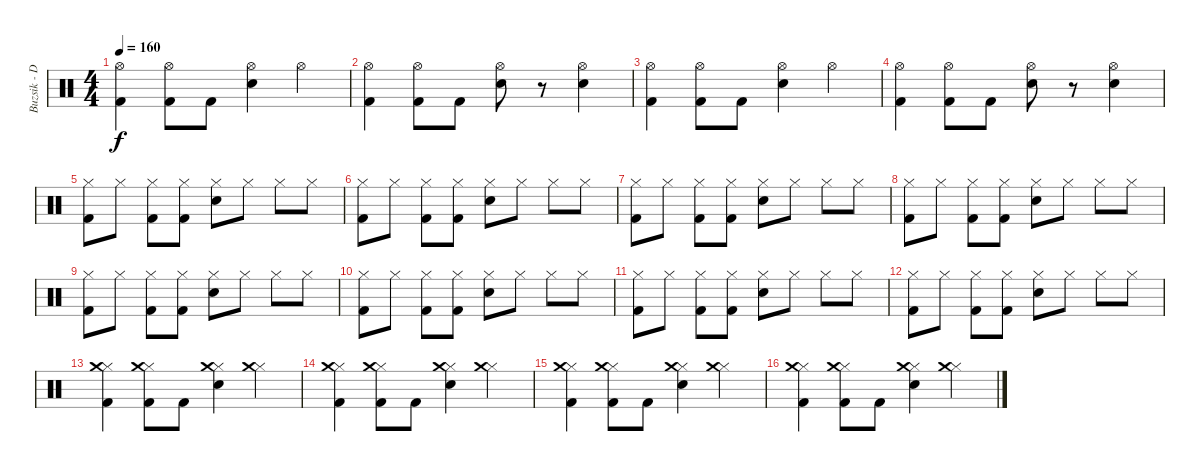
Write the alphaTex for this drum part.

\track ("Buzsik - Dob" "Buzsik - D") {instrument percussion}
\staff {score}
\articulation defaults
\ts (4 4)
\tempo 160
\clef neutral
\ks c
("Hi-Hat (open)" "Kick (hit) 2").4{dy f} ("Hi-Hat (open)" "Kick (hit) 2").8 "Kick (hit) 2".8 ("Hi-Hat (open)" "Electric Snare (hit)").4 "Hi-Hat (open)".4 |
("Hi-Hat (open)" "Kick (hit) 2").4 ("Hi-Hat (open)" "Kick (hit) 2").8 "Kick (hit) 2".8 ("Hi-Hat (open)" "Electric Snare (hit)").8 r.8 ("Hi-Hat (open)" "Electric Snare (hit)").4 |
("Hi-Hat (open)" "Kick (hit) 2").4 ("Hi-Hat (open)" "Kick (hit) 2").8 "Kick (hit) 2".8 ("Hi-Hat (open)" "Electric Snare (hit)").4 "Hi-Hat (open)".4 |
("Hi-Hat (open)" "Kick (hit) 2").4 ("Hi-Hat (open)" "Kick (hit) 2").8 "Kick (hit) 2".8 ("Hi-Hat (open)" "Electric Snare (hit)").8 r.8 ("Hi-Hat (open)" "Electric Snare (hit)").4 |
("Hi-Hat (closed)" "Kick (hit) 2").8 "Hi-Hat (closed)".8 ("Hi-Hat (closed)" "Kick (hit) 2").8 ("Hi-Hat (closed)" "Kick (hit) 2").8 ("Hi-Hat (closed)" "Electric Snare (hit)").8 "Hi-Hat (closed)".8 "Hi-Hat (closed)".8 "Hi-Hat (closed)".8 |
("Hi-Hat (closed)" "Kick (hit) 2").8 "Hi-Hat (closed)".8 ("Hi-Hat (closed)" "Kick (hit) 2").8 ("Hi-Hat (closed)" "Kick (hit) 2").8 ("Hi-Hat (closed)" "Electric Snare (hit)").8 "Hi-Hat (closed)".8 "Hi-Hat (closed)".8 "Hi-Hat (closed)".8 |
("Hi-Hat (closed)" "Kick (hit) 2").8 "Hi-Hat (closed)".8 ("Hi-Hat (closed)" "Kick (hit) 2").8 ("Hi-Hat (closed)" "Kick (hit) 2").8 ("Hi-Hat (closed)" "Electric Snare (hit)").8 "Hi-Hat (closed)".8 "Hi-Hat (closed)".8 "Hi-Hat (closed)".8 |
("Hi-Hat (closed)" "Kick (hit) 2").8 "Hi-Hat (closed)".8 ("Hi-Hat (closed)" "Kick (hit) 2").8 ("Hi-Hat (closed)" "Kick (hit) 2").8 ("Hi-Hat (closed)" "Electric Snare (hit)").8 "Hi-Hat (closed)".8 "Hi-Hat (closed)".8 "Hi-Hat (closed)".8 |
("Hi-Hat (closed)" "Kick (hit) 2").8 "Hi-Hat (closed)".8 ("Hi-Hat (closed)" "Kick (hit) 2").8 ("Hi-Hat (closed)" "Kick (hit) 2").8 ("Hi-Hat (closed)" "Electric Snare (hit)").8 "Hi-Hat (closed)".8 "Hi-Hat (closed)".8 "Hi-Hat (closed)".8 |
("Hi-Hat (closed)" "Kick (hit) 2").8 "Hi-Hat (closed)".8 ("Hi-Hat (closed)" "Kick (hit) 2").8 ("Hi-Hat (closed)" "Kick (hit) 2").8 ("Hi-Hat (closed)" "Electric Snare (hit)").8 "Hi-Hat (closed)".8 "Hi-Hat (closed)".8 "Hi-Hat (closed)".8 |
("Hi-Hat (closed)" "Kick (hit) 2").8 "Hi-Hat (closed)".8 ("Hi-Hat (closed)" "Kick (hit) 2").8 ("Hi-Hat (closed)" "Kick (hit) 2").8 ("Hi-Hat (closed)" "Electric Snare (hit)").8 "Hi-Hat (closed)".8 "Hi-Hat (closed)".8 "Hi-Hat (closed)".8 |
("Hi-Hat (closed)" "Kick (hit) 2").8 "Hi-Hat (closed)".8 ("Hi-Hat (closed)" "Kick (hit) 2").8 ("Hi-Hat (closed)" "Kick (hit) 2").8 ("Hi-Hat (closed)" "Electric Snare (hit)").8 "Hi-Hat (closed)".8 "Hi-Hat (closed)".8 "Hi-Hat (closed)".8 |
("Hi-Hat (closed)" "Crash medium (hit)" "Kick (hit) 2").4 ("Hi-Hat (closed)" "Crash medium (hit)" "Kick (hit) 2").8 "Kick (hit) 2".8 ("Hi-Hat (closed)" "Crash medium (hit)" "Electric Snare (hit)").4 ("Hi-Hat (closed)" "Crash medium (hit)").4 |
("Hi-Hat (closed)" "Crash medium (hit)" "Kick (hit) 2").4 ("Hi-Hat (closed)" "Crash medium (hit)" "Kick (hit) 2").8 "Kick (hit) 2".8 ("Hi-Hat (closed)" "Crash medium (hit)" "Electric Snare (hit)").4 ("Hi-Hat (closed)" "Crash medium (hit)").4 |
("Hi-Hat (closed)" "Crash medium (hit)" "Kick (hit) 2").4 ("Hi-Hat (closed)" "Crash medium (hit)" "Kick (hit) 2").8 "Kick (hit) 2".8 ("Hi-Hat (closed)" "Crash medium (hit)" "Electric Snare (hit)").4 ("Hi-Hat (closed)" "Crash medium (hit)").4 |
("Hi-Hat (closed)" "Crash medium (hit)" "Kick (hit) 2").4 ("Hi-Hat (closed)" "Crash medium (hit)" "Kick (hit) 2").8 "Kick (hit) 2".8 ("Hi-Hat (closed)" "Crash medium (hit)" "Electric Snare (hit)").4 ("Hi-Hat (closed)" "Crash medium (hit)").4
